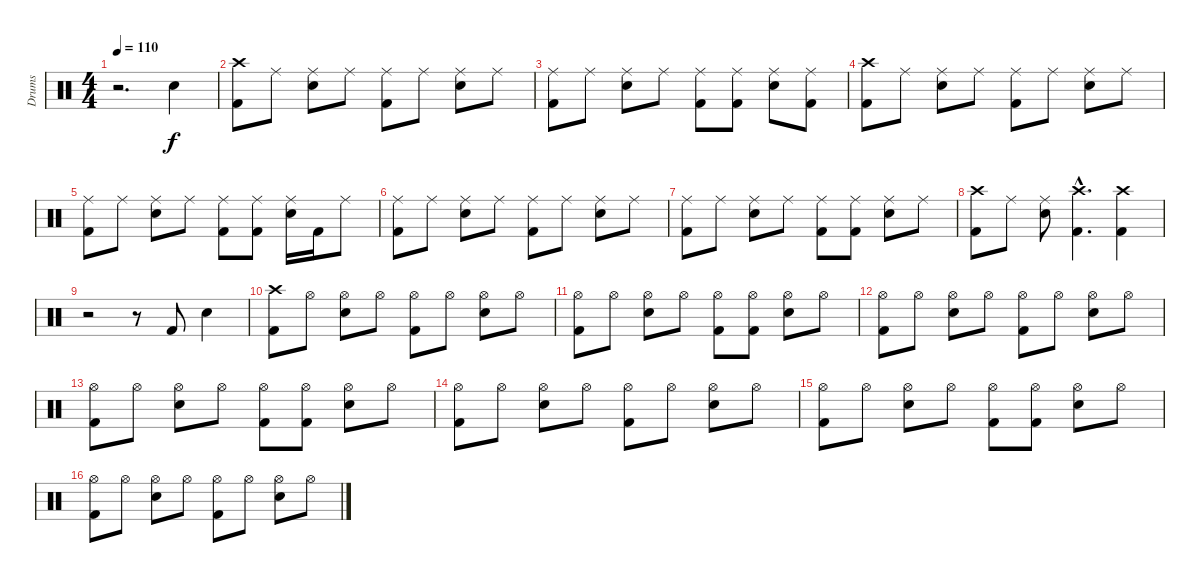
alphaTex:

\track ("Drums" "Drums") {instrument percussion}
\staff {score}
\articulation defaults
\ts (4 4)
\tempo 110
\clef neutral
\ks c
r.2{d dy f} "Electric Snare (hit)".4 |
("Crash high (hit)" "Kick (hit) 2").8 "Ride (middle)".8 ("Ride (middle)" "Electric Snare (hit)").8 "Ride (middle)".8 ("Ride (middle)" "Kick (hit) 2").8 "Ride (middle)".8 ("Ride (middle)" "Electric Snare (hit)").8 "Ride (middle)".8 |
("Ride (middle)" "Kick (hit) 2").8 "Ride (middle)".8 ("Ride (middle)" "Electric Snare (hit)").8 "Ride (middle)".8 ("Ride (middle)" "Kick (hit) 2").8 ("Ride (middle)" "Kick (hit) 2").8 ("Ride (middle)" "Electric Snare (hit)").8 ("Ride (middle)" "Kick (hit) 2").8 |
("Crash high (hit)" "Kick (hit) 2").8 "Ride (middle)".8 ("Ride (middle)" "Electric Snare (hit)").8 "Ride (middle)".8 ("Ride (middle)" "Kick (hit) 2").8 "Ride (middle)".8 ("Ride (middle)" "Electric Snare (hit)").8 "Ride (middle)".8 |
("Ride (middle)" "Kick (hit) 2").8 "Ride (middle)".8 ("Ride (middle)" "Electric Snare (hit)").8 "Ride (middle)".8 ("Ride (middle)" "Kick (hit) 2").8 ("Ride (middle)" "Kick (hit) 2").8 ("Ride (middle)" "Electric Snare (hit)").16 "Kick (hit) 2".16 "Ride (middle)".8 |
("Ride (middle)" "Kick (hit) 2").8 "Ride (middle)".8 ("Ride (middle)" "Electric Snare (hit)").8 "Ride (middle)".8 ("Ride (middle)" "Kick (hit) 2").8 "Ride (middle)".8 ("Ride (middle)" "Electric Snare (hit)").8 "Ride (middle)".8 |
("Ride (middle)" "Kick (hit) 2").8 "Ride (middle)".8 ("Ride (middle)" "Electric Snare (hit)").8 "Ride (middle)".8 ("Ride (middle)" "Kick (hit) 2").8 ("Ride (middle)" "Kick (hit) 2").8 ("Ride (middle)" "Electric Snare (hit)").8 "Ride (middle)".8 |
("Crash high (hit)" "Kick (hit) 2").8 "Ride (middle)".8 ("Ride (middle)" "Electric Snare (hit)").8 ("Crash high (hit)"{hac} "Kick (hit) 2"{hac}).4{d} ("Crash high (hit)" "Kick (hit) 2").4 |
r.2 r.8 "Kick (hit) 2".8 "Electric Snare (hit)".4 |
("Crash high (hit)" "Kick (hit) 2").8 "Hi-Hat (open)".8 ("Hi-Hat (open)" "Electric Snare (hit)").8 "Hi-Hat (open)".8 ("Hi-Hat (open)" "Kick (hit) 2").8 "Hi-Hat (open)".8 ("Hi-Hat (open)" "Electric Snare (hit)").8 "Hi-Hat (open)".8 |
("Hi-Hat (open)" "Kick (hit) 2").8 "Hi-Hat (open)".8 ("Hi-Hat (open)" "Electric Snare (hit)").8 "Hi-Hat (open)".8 ("Hi-Hat (open)" "Kick (hit) 2").8 ("Hi-Hat (open)" "Kick (hit) 2").8 ("Hi-Hat (open)" "Electric Snare (hit)").8 "Hi-Hat (open)".8 |
("Hi-Hat (open)" "Kick (hit) 2").8 "Hi-Hat (open)".8 ("Hi-Hat (open)" "Electric Snare (hit)").8 "Hi-Hat (open)".8 ("Hi-Hat (open)" "Kick (hit) 2").8 "Hi-Hat (open)".8 ("Hi-Hat (open)" "Electric Snare (hit)").8 "Hi-Hat (open)".8 |
("Hi-Hat (open)" "Kick (hit) 2").8 "Hi-Hat (open)".8 ("Hi-Hat (open)" "Electric Snare (hit)").8 "Hi-Hat (open)".8 ("Hi-Hat (open)" "Kick (hit) 2").8 ("Hi-Hat (open)" "Kick (hit) 2").8 ("Hi-Hat (open)" "Electric Snare (hit)").8 "Hi-Hat (open)".8 |
("Hi-Hat (open)" "Kick (hit) 2").8 "Hi-Hat (open)".8 ("Hi-Hat (open)" "Electric Snare (hit)").8 "Hi-Hat (open)".8 ("Hi-Hat (open)" "Kick (hit) 2").8 "Hi-Hat (open)".8 ("Hi-Hat (open)" "Electric Snare (hit)").8 "Hi-Hat (open)".8 |
("Hi-Hat (open)" "Kick (hit) 2").8 "Hi-Hat (open)".8 ("Hi-Hat (open)" "Electric Snare (hit)").8 "Hi-Hat (open)".8 ("Hi-Hat (open)" "Kick (hit) 2").8 ("Hi-Hat (open)" "Kick (hit) 2").8 ("Hi-Hat (open)" "Electric Snare (hit)").8 "Hi-Hat (open)".8 |
("Hi-Hat (open)" "Kick (hit) 2").8 "Hi-Hat (open)".8 ("Hi-Hat (open)" "Electric Snare (hit)").8 "Hi-Hat (open)".8 ("Hi-Hat (open)" "Kick (hit) 2").8 "Hi-Hat (open)".8 ("Hi-Hat (open)" "Electric Snare (hit)").8 "Hi-Hat (open)".8
